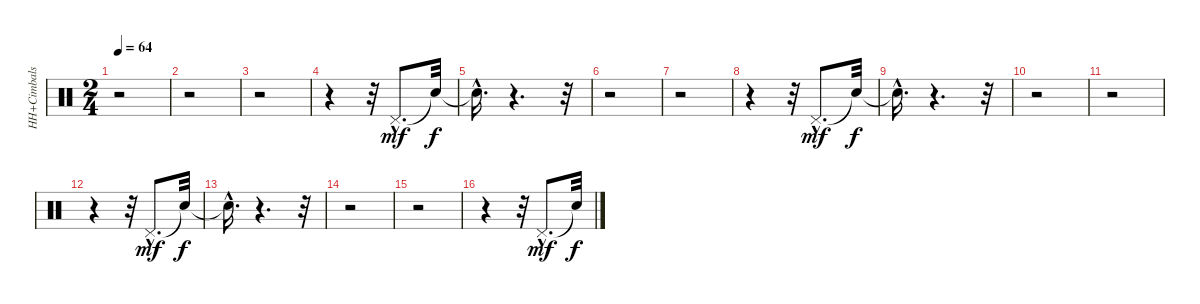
\track ("HH+Cimbals" "HH+Cimbals") {instrument percussion}
\staff {score}
\articulation defaults
\ts (2 4)
\tempo 64
\clef neutral
\ks c
r.2{dy mf} |
r.2 |
r.2 |
r.4 r.32 "Pedal Hi-Hat (hit)"{hac}.8{d} "Snare (hit)"{t}.32{dy f} |
"Snare (hit)"{hac t}.16{d} r.4{d} r.32 |
r.2 |
r.2 |
r.4 r.32 "Pedal Hi-Hat (hit)"{hac}.8{d dy mf} "Snare (hit)"{t}.32{dy f} |
"Snare (hit)"{hac t}.16{d} r.4{d} r.32 |
r.2 |
r.2 |
r.4 r.32 "Pedal Hi-Hat (hit)"{hac}.8{d dy mf} "Snare (hit)"{t}.32{dy f} |
"Snare (hit)"{hac t}.16{d} r.4{d} r.32 |
r.2 |
r.2 |
r.4 r.32 "Pedal Hi-Hat (hit)"{hac}.8{d dy mf} "Snare (hit)"{t}.32{dy f}
